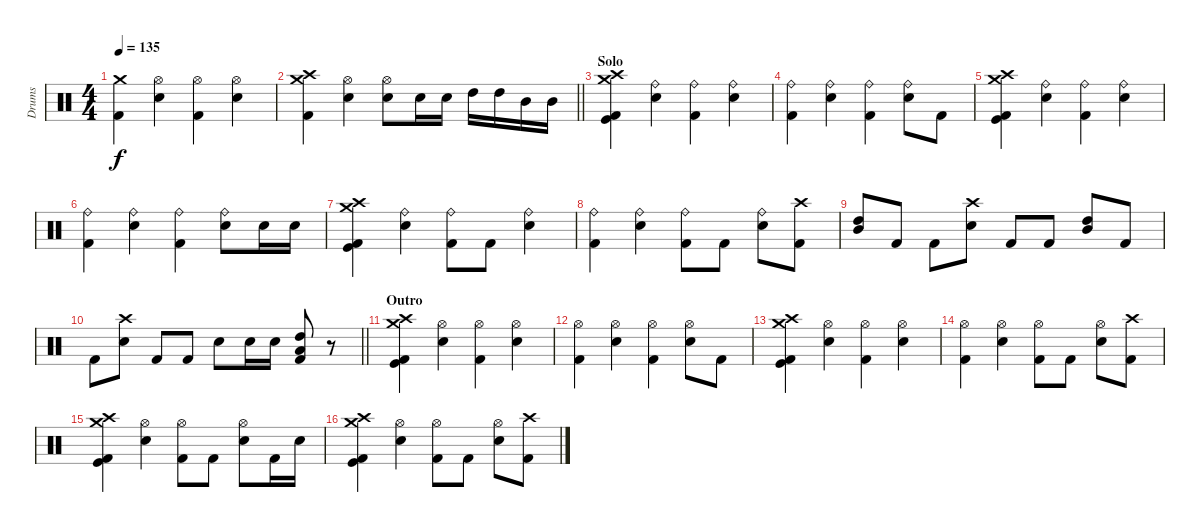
\track ("Drums" "Drums") {instrument percussion}
\staff {score}
\articulation defaults
\ts (4 4)
\tempo 135
\clef neutral
\ks c
("Crash medium (hit)" "Kick (hit) 2").4{dy f} ("Hi-Hat (open)" "Snare (hit) 2").4 ("Hi-Hat (open)" "Kick (hit) 2").4 ("Hi-Hat (open)" "Snare (hit) 2").4 |
\barLineRight lightlight
("Crash high (hit)" "Crash medium (hit)" "Kick (hit) 2").4 ("Hi-Hat (open)" "Snare (hit) 2").4 ("Hi-Hat (open)" "Snare (hit) 2").8 "Snare (hit) 2".16 "Snare (hit) 2".16 "High Tom (hit)".16 "High Tom (hit)".16 "Mid Tom (hit)".16 "Mid Tom (hit)".16 |
\section ("" "Solo")
("Crash high (hit)" "Crash medium (hit)" "Kick (hit) 2" "Kick (hit)").4 ("Ride (bell)" "Snare (hit) 2").4 ("Ride (bell)" "Kick (hit) 2").4 ("Ride (bell)" "Snare (hit) 2").4 |
("Ride (bell)" "Kick (hit) 2").4 ("Ride (bell)" "Snare (hit) 2").4 ("Ride (bell)" "Kick (hit) 2").4 ("Ride (bell)" "Snare (hit) 2").8 "Kick (hit) 2".8 |
("Crash medium (hit)" "Crash high (hit)" "Kick (hit)" "Kick (hit) 2").4 ("Ride (bell)" "Snare (hit) 2").4 ("Ride (bell)" "Kick (hit) 2").4 ("Ride (bell)" "Snare (hit) 2").4 |
("Ride (bell)" "Kick (hit) 2").4 ("Ride (bell)" "Snare (hit) 2").4 ("Ride (bell)" "Kick (hit) 2").4 ("Ride (bell)" "Snare (hit) 2").8 "Snare (hit) 2".16 "Snare (hit) 2".16 |
("Crash medium (hit)" "Crash high (hit)" "Kick (hit)" "Kick (hit) 2").4 ("Ride (bell)" "Snare (hit) 2").4 ("Ride (bell)" "Kick (hit) 2").8 "Kick (hit) 2".8 ("Ride (bell)" "Snare (hit) 2").4 |
("Ride (bell)" "Kick (hit) 2").4 ("Ride (bell)" "Snare (hit) 2").4 ("Ride (bell)" "Kick (hit) 2").8 "Kick (hit) 2".8 ("Ride (bell)" "Snare (hit) 2").8 ("Crash high (hit)" "Kick (hit) 2").8 |
("Mid Tom (hit)" "High Tom (hit)").8 "Kick (hit) 2".8 "Kick (hit) 2".8 ("Crash high (hit)" "Snare (hit) 2").8 "Kick (hit) 2".8 "Kick (hit) 2".8 ("Mid Tom (hit)" "High Tom (hit)").8 "Kick (hit) 2".8 |
\barLineRight lightlight "Kick (hit) 2".8
("Crash high (hit)" "Snare (hit) 2").8 "Kick (hit) 2".8 "Kick (hit) 2".8 "Snare (hit) 2".8 "Snare (hit) 2".16 "Snare (hit) 2".16 ("High Tom (hit)" "Low Tom (hit)" "Kick (hit) 2").8 r.8 |
\section ("" "Outro")
("Crash high (hit)" "Crash medium (hit)" "Kick (hit) 2" "Kick (hit)").4 ("Hi-Hat (open)" "Snare (hit) 2").4 ("Hi-Hat (open)" "Kick (hit) 2").4 ("Hi-Hat (open)" "Snare (hit) 2").4 |
("Hi-Hat (open)" "Kick (hit) 2").4 ("Hi-Hat (open)" "Snare (hit) 2").4 ("Hi-Hat (open)" "Kick (hit) 2").4 ("Hi-Hat (open)" "Snare (hit) 2").8 "Kick (hit) 2".8 |
("Crash medium (hit)" "Crash high (hit)" "Kick (hit)" "Kick (hit) 2").4 ("Hi-Hat (open)" "Snare (hit) 2").4 ("Hi-Hat (open)" "Kick (hit) 2").4 ("Hi-Hat (open)" "Snare (hit) 2").4 |
("Hi-Hat (open)" "Kick (hit) 2").4 ("Hi-Hat (open)" "Snare (hit) 2").4 ("Hi-Hat (open)" "Kick (hit) 2").8 "Kick (hit) 2".8 ("Hi-Hat (open)" "Snare (hit) 2").8 ("Crash high (hit)" "Kick (hit) 2").8 |
("Crash medium (hit)" "Crash high (hit)" "Kick (hit)" "Kick (hit) 2").4 ("Hi-Hat (open)" "Snare (hit) 2").4 ("Hi-Hat (open)" "Kick (hit) 2").8 "Kick (hit) 2".8 ("Hi-Hat (open)" "Snare (hit) 2").8 "Kick (hit) 2".16 "Snare (hit) 2".16 |
("Crash medium (hit)" "Crash high (hit)" "Kick (hit)" "Kick (hit) 2").4 ("Hi-Hat (open)" "Snare (hit) 2").4 ("Hi-Hat (open)" "Kick (hit) 2").8 "Kick (hit) 2".8 ("Hi-Hat (open)" "Snare (hit) 2").8 ("Crash high (hit)" "Kick (hit) 2").8
